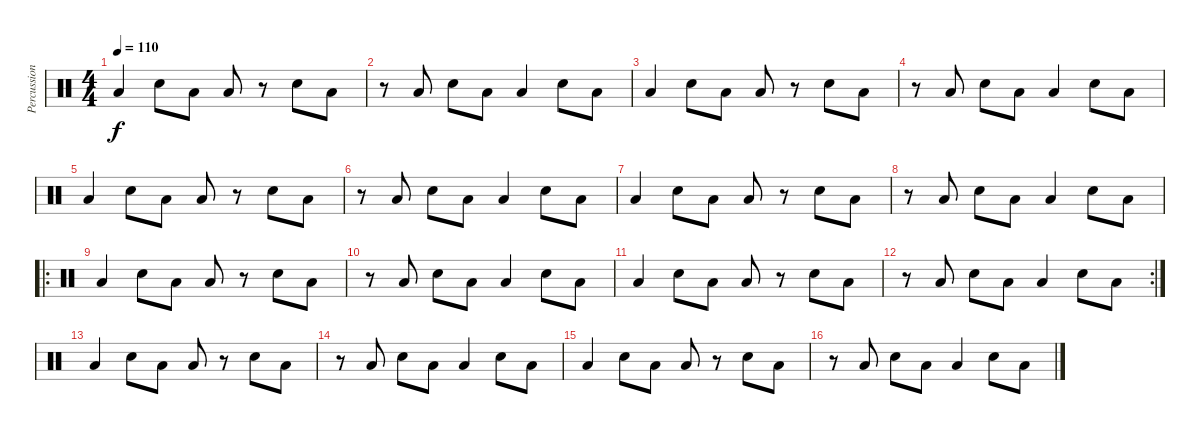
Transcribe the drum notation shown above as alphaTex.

\track ("Percussion" "Percussion") {instrument percussion}
\staff {score}
\articulation defaults
\ts (4 4)
\tempo 110
\clef neutral
\ks c "Low Tom (hit)".4{dy f} "Electric Snare (hit)".8 "Low Tom (hit)".8 "Low Tom (hit)".8
r.8 "Electric Snare (hit)".8 "Low Tom (hit)".8 |
r.8 "Low Tom (hit)".8 "Electric Snare (hit)".8 "Low Tom (hit)".8 "Low Tom (hit)".4 "Electric Snare (hit)".8 "Low Tom (hit)".8 |
"Low Tom (hit)".4 "Electric Snare (hit)".8 "Low Tom (hit)".8 "Low Tom (hit)".8 r.8 "Electric Snare (hit)".8 "Low Tom (hit)".8 |
r.8 "Low Tom (hit)".8 "Electric Snare (hit)".8 "Low Tom (hit)".8 "Low Tom (hit)".4 "Electric Snare (hit)".8 "Low Tom (hit)".8 |
"Low Tom (hit)".4 "Electric Snare (hit)".8 "Low Tom (hit)".8 "Low Tom (hit)".8 r.8 "Electric Snare (hit)".8 "Low Tom (hit)".8 |
r.8 "Low Tom (hit)".8 "Electric Snare (hit)".8 "Low Tom (hit)".8 "Low Tom (hit)".4 "Electric Snare (hit)".8 "Low Tom (hit)".8 |
"Low Tom (hit)".4 "Electric Snare (hit)".8 "Low Tom (hit)".8 "Low Tom (hit)".8 r.8 "Electric Snare (hit)".8 "Low Tom (hit)".8 |
r.8 "Low Tom (hit)".8 "Electric Snare (hit)".8 "Low Tom (hit)".8 "Low Tom (hit)".4 "Electric Snare (hit)".8 "Low Tom (hit)".8 |
\ro "Low Tom (hit)".4 "Electric Snare (hit)".8 "Low Tom (hit)".8 "Low Tom (hit)".8
r.8 "Electric Snare (hit)".8 "Low Tom (hit)".8 |
r.8 "Low Tom (hit)".8 "Electric Snare (hit)".8 "Low Tom (hit)".8 "Low Tom (hit)".4 "Electric Snare (hit)".8 "Low Tom (hit)".8 |
"Low Tom (hit)".4 "Electric Snare (hit)".8 "Low Tom (hit)".8 "Low Tom (hit)".8 r.8 "Electric Snare (hit)".8 "Low Tom (hit)".8 |
\rc 2
r.8 "Low Tom (hit)".8 "Electric Snare (hit)".8 "Low Tom (hit)".8 "Low Tom (hit)".4 "Electric Snare (hit)".8 "Low Tom (hit)".8 |
"Low Tom (hit)".4 "Electric Snare (hit)".8 "Low Tom (hit)".8 "Low Tom (hit)".8 r.8 "Electric Snare (hit)".8 "Low Tom (hit)".8 |
r.8 "Low Tom (hit)".8 "Electric Snare (hit)".8 "Low Tom (hit)".8 "Low Tom (hit)".4 "Electric Snare (hit)".8 "Low Tom (hit)".8 |
"Low Tom (hit)".4 "Electric Snare (hit)".8 "Low Tom (hit)".8 "Low Tom (hit)".8 r.8 "Electric Snare (hit)".8 "Low Tom (hit)".8 |
r.8 "Low Tom (hit)".8 "Electric Snare (hit)".8 "Low Tom (hit)".8 "Low Tom (hit)".4 "Electric Snare (hit)".8 "Low Tom (hit)".8
